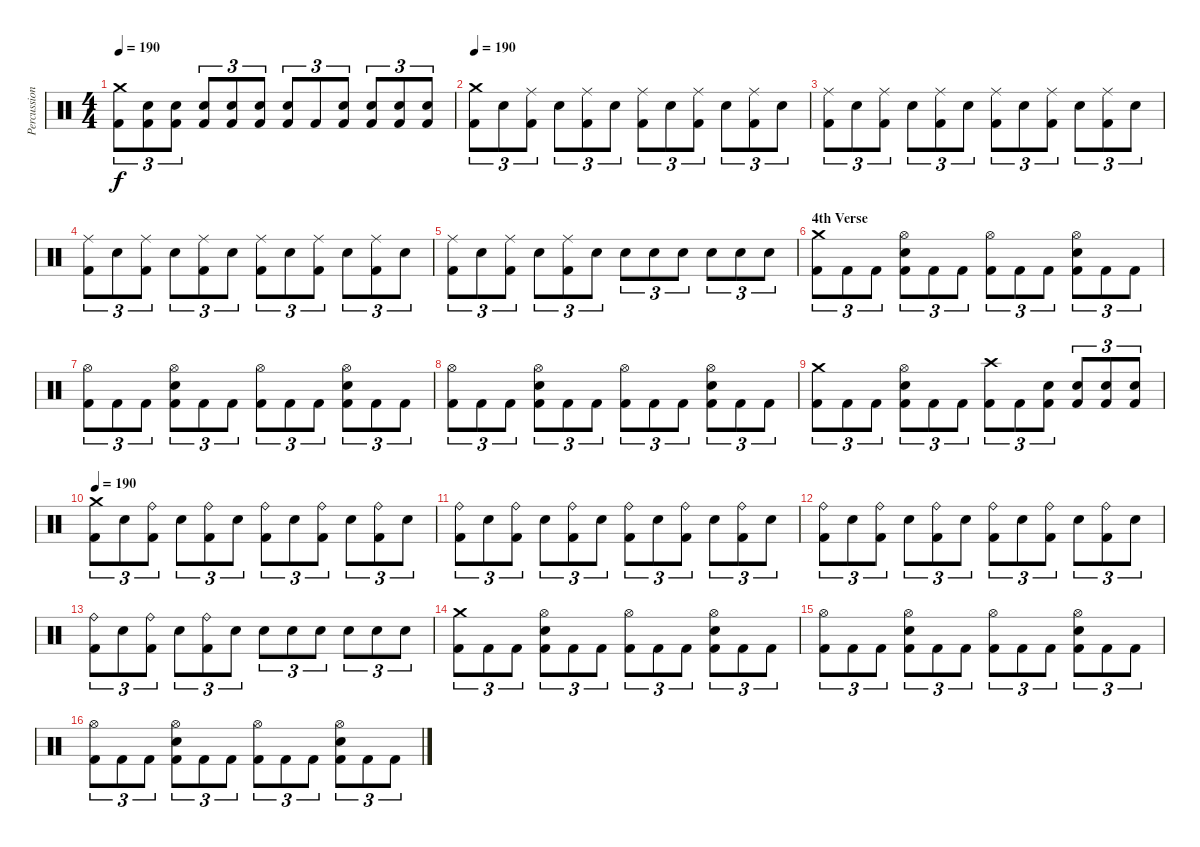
\track ("Percussion" "Percussion") {instrument percussion}
\staff {score}
\articulation defaults
\ts (4 4)
\tempo 190
\clef neutral
\ks c
("Kick (hit) 2" "Crash medium (hit)").8{tu (3 2) dy f} ("Kick (hit) 2" "Electric Snare (hit)").8{tu (3 2)} ("Kick (hit) 2" "Electric Snare (hit)").8{tu (3 2)} ("Kick (hit) 2" "Electric Snare (hit)").8{tu (3 2)} ("Kick (hit) 2" "Electric Snare (hit)").8{tu (3 2)} ("Kick (hit) 2" "Electric Snare (hit)").8{tu (3 2)} ("Kick (hit) 2" "Electric Snare (hit)").8{tu (3 2)} "Kick (hit) 2".8{tu (3 2)} ("Kick (hit) 2" "Electric Snare (hit)").8{tu (3 2)} ("Kick (hit) 2" "Electric Snare (hit)").8{tu (3 2)} ("Kick (hit) 2" "Electric Snare (hit)").8{tu (3 2)} ("Kick (hit) 2" "Electric Snare (hit)").8{tu (3 2)} |
\tempo 190
("Kick (hit) 2" "Crash medium (hit)").8{tu (3 2)} "Electric Snare (hit)".8{tu (3 2)} ("Kick (hit) 2" "Ride (middle)").8{tu (3 2)} "Electric Snare (hit)".8{tu (3 2)} ("Kick (hit) 2" "Ride (middle)").8{tu (3 2)} "Electric Snare (hit)".8{tu (3 2)} ("Kick (hit) 2" "Ride (middle)").8{tu (3 2)} "Electric Snare (hit)".8{tu (3 2)} ("Kick (hit) 2" "Ride (middle)").8{tu (3 2)} "Electric Snare (hit)".8{tu (3 2)} ("Kick (hit) 2" "Ride (middle)").8{tu (3 2)} "Electric Snare (hit)".8{tu (3 2)} |
("Kick (hit) 2" "Ride (middle)").8{tu (3 2)} "Electric Snare (hit)".8{tu (3 2)} ("Kick (hit) 2" "Ride (middle)").8{tu (3 2)} "Electric Snare (hit)".8{tu (3 2)} ("Kick (hit) 2" "Ride (middle)").8{tu (3 2)} "Electric Snare (hit)".8{tu (3 2)} ("Kick (hit) 2" "Ride (middle)").8{tu (3 2)} "Electric Snare (hit)".8{tu (3 2)} ("Kick (hit) 2" "Ride (middle)").8{tu (3 2)} "Electric Snare (hit)".8{tu (3 2)} ("Kick (hit) 2" "Ride (middle)").8{tu (3 2)} "Electric Snare (hit)".8{tu (3 2)} |
("Kick (hit) 2" "Ride (middle)").8{tu (3 2)} "Electric Snare (hit)".8{tu (3 2)} ("Kick (hit) 2" "Ride (middle)").8{tu (3 2)} "Electric Snare (hit)".8{tu (3 2)} ("Kick (hit) 2" "Ride (middle)").8{tu (3 2)} "Electric Snare (hit)".8{tu (3 2)} ("Kick (hit) 2" "Ride (middle)").8{tu (3 2)} "Electric Snare (hit)".8{tu (3 2)} ("Kick (hit) 2" "Ride (middle)").8{tu (3 2)} "Electric Snare (hit)".8{tu (3 2)} ("Kick (hit) 2" "Ride (middle)").8{tu (3 2)} "Electric Snare (hit)".8{tu (3 2)} |
("Kick (hit) 2" "Ride (middle)").8{tu (3 2)} "Electric Snare (hit)".8{tu (3 2)} ("Kick (hit) 2" "Ride (middle)").8{tu (3 2)} "Electric Snare (hit)".8{tu (3 2)} ("Kick (hit) 2" "Ride (middle)").8{tu (3 2)} "Electric Snare (hit)".8{tu (3 2)} "Electric Snare (hit)".8{tu (3 2)} "Electric Snare (hit)".8{tu (3 2)} "Electric Snare (hit)".8{tu (3 2)} "Electric Snare (hit)".8{tu (3 2)} "Electric Snare (hit)".8{tu (3 2)} "Electric Snare (hit)".8{tu (3 2)} |
\section ("" "4th Verse")
("Kick (hit) 2" "Crash medium (hit)").8{tu (3 2)} "Kick (hit) 2".8{tu (3 2)} "Kick (hit) 2".8{tu (3 2)} ("Kick (hit) 2" "Electric Snare (hit)" "Hi-Hat (open)").8{tu (3 2)} "Kick (hit) 2".8{tu (3 2)} "Kick (hit) 2".8{tu (3 2)} ("Kick (hit) 2" "Hi-Hat (open)").8{tu (3 2)} "Kick (hit) 2".8{tu (3 2)} "Kick (hit) 2".8{tu (3 2)} ("Kick (hit) 2" "Electric Snare (hit)" "Hi-Hat (open)").8{tu (3 2)} "Kick (hit) 2".8{tu (3 2)} "Kick (hit) 2".8{tu (3 2)} |
("Kick (hit) 2" "Hi-Hat (open)").8{tu (3 2)} "Kick (hit) 2".8{tu (3 2)} "Kick (hit) 2".8{tu (3 2)} ("Kick (hit) 2" "Electric Snare (hit)" "Hi-Hat (open)").8{tu (3 2)} "Kick (hit) 2".8{tu (3 2)} "Kick (hit) 2".8{tu (3 2)} ("Kick (hit) 2" "Hi-Hat (open)").8{tu (3 2)} "Kick (hit) 2".8{tu (3 2)} "Kick (hit) 2".8{tu (3 2)} ("Kick (hit) 2" "Electric Snare (hit)" "Hi-Hat (open)").8{tu (3 2)} "Kick (hit) 2".8{tu (3 2)} "Kick (hit) 2".8{tu (3 2)} |
("Kick (hit) 2" "Hi-Hat (open)").8{tu (3 2)} "Kick (hit) 2".8{tu (3 2)} "Kick (hit) 2".8{tu (3 2)} ("Kick (hit) 2" "Electric Snare (hit)" "Hi-Hat (open)").8{tu (3 2)} "Kick (hit) 2".8{tu (3 2)} "Kick (hit) 2".8{tu (3 2)} ("Kick (hit) 2" "Hi-Hat (open)").8{tu (3 2)} "Kick (hit) 2".8{tu (3 2)} "Kick (hit) 2".8{tu (3 2)} ("Kick (hit) 2" "Electric Snare (hit)" "Hi-Hat (open)").8{tu (3 2)} "Kick (hit) 2".8{tu (3 2)} "Kick (hit) 2".8{tu (3 2)} |
("Kick (hit) 2" "Crash medium (hit)").8{tu (3 2)} "Kick (hit) 2".8{tu (3 2)} "Kick (hit) 2".8{tu (3 2)} ("Kick (hit) 2" "Electric Snare (hit)" "Hi-Hat (open)").8{tu (3 2)} "Kick (hit) 2".8{tu (3 2)} "Kick (hit) 2".8{tu (3 2)} ("Kick (hit) 2" "Crash high (hit)").8{tu (3 2)} "Kick (hit) 2".8{tu (3 2)} ("Kick (hit) 2" "Electric Snare (hit)").8{tu (3 2)} ("Kick (hit) 2" "Electric Snare (hit)").8{tu (3 2)} ("Kick (hit) 2" "Electric Snare (hit)").8{tu (3 2)} ("Kick (hit) 2" "Electric Snare (hit)").8{tu (3 2)} |
\tempo 190
("Kick (hit) 2" "Crash medium (hit)").8{tu (3 2)} "Electric Snare (hit)".8{tu (3 2)} ("Kick (hit) 2" "Ride (bell)").8{tu (3 2)} "Electric Snare (hit)".8{tu (3 2)} ("Kick (hit) 2" "Ride (bell)").8{tu (3 2)} "Electric Snare (hit)".8{tu (3 2)} ("Kick (hit) 2" "Ride (bell)").8{tu (3 2)} "Electric Snare (hit)".8{tu (3 2)} ("Kick (hit) 2" "Ride (bell)").8{tu (3 2)} "Electric Snare (hit)".8{tu (3 2)} ("Kick (hit) 2" "Ride (bell)").8{tu (3 2)} "Electric Snare (hit)".8{tu (3 2)} |
("Kick (hit) 2" "Ride (bell)").8{tu (3 2)} "Electric Snare (hit)".8{tu (3 2)} ("Kick (hit) 2" "Ride (bell)").8{tu (3 2)} "Electric Snare (hit)".8{tu (3 2)} ("Kick (hit) 2" "Ride (bell)").8{tu (3 2)} "Electric Snare (hit)".8{tu (3 2)} ("Kick (hit) 2" "Ride (bell)").8{tu (3 2)} "Electric Snare (hit)".8{tu (3 2)} ("Kick (hit) 2" "Ride (bell)").8{tu (3 2)} "Electric Snare (hit)".8{tu (3 2)} ("Kick (hit) 2" "Ride (bell)").8{tu (3 2)} "Electric Snare (hit)".8{tu (3 2)} |
("Kick (hit) 2" "Ride (bell)").8{tu (3 2)} "Electric Snare (hit)".8{tu (3 2)} ("Kick (hit) 2" "Ride (bell)").8{tu (3 2)} "Electric Snare (hit)".8{tu (3 2)} ("Kick (hit) 2" "Ride (bell)").8{tu (3 2)} "Electric Snare (hit)".8{tu (3 2)} ("Kick (hit) 2" "Ride (bell)").8{tu (3 2)} "Electric Snare (hit)".8{tu (3 2)} ("Kick (hit) 2" "Ride (bell)").8{tu (3 2)} "Electric Snare (hit)".8{tu (3 2)} ("Kick (hit) 2" "Ride (bell)").8{tu (3 2)} "Electric Snare (hit)".8{tu (3 2)} |
("Kick (hit) 2" "Ride (bell)").8{tu (3 2)} "Electric Snare (hit)".8{tu (3 2)} ("Kick (hit) 2" "Ride (bell)").8{tu (3 2)} "Electric Snare (hit)".8{tu (3 2)} ("Kick (hit) 2" "Ride (bell)").8{tu (3 2)} "Electric Snare (hit)".8{tu (3 2)} "Electric Snare (hit)".8{tu (3 2)} "Electric Snare (hit)".8{tu (3 2)} "Electric Snare (hit)".8{tu (3 2)} "Electric Snare (hit)".8{tu (3 2)} "Electric Snare (hit)".8{tu (3 2)} "Electric Snare (hit)".8{tu (3 2)} |
("Kick (hit) 2" "Crash medium (hit)").8{tu (3 2)} "Kick (hit) 2".8{tu (3 2)} "Kick (hit) 2".8{tu (3 2)} ("Kick (hit) 2" "Electric Snare (hit)" "Hi-Hat (open)").8{tu (3 2)} "Kick (hit) 2".8{tu (3 2)} "Kick (hit) 2".8{tu (3 2)} ("Kick (hit) 2" "Hi-Hat (open)").8{tu (3 2)} "Kick (hit) 2".8{tu (3 2)} "Kick (hit) 2".8{tu (3 2)} ("Kick (hit) 2" "Electric Snare (hit)" "Hi-Hat (open)").8{tu (3 2)} "Kick (hit) 2".8{tu (3 2)} "Kick (hit) 2".8{tu (3 2)} |
("Kick (hit) 2" "Hi-Hat (open)").8{tu (3 2)} "Kick (hit) 2".8{tu (3 2)} "Kick (hit) 2".8{tu (3 2)} ("Kick (hit) 2" "Electric Snare (hit)" "Hi-Hat (open)").8{tu (3 2)} "Kick (hit) 2".8{tu (3 2)} "Kick (hit) 2".8{tu (3 2)} ("Kick (hit) 2" "Hi-Hat (open)").8{tu (3 2)} "Kick (hit) 2".8{tu (3 2)} "Kick (hit) 2".8{tu (3 2)} ("Kick (hit) 2" "Electric Snare (hit)" "Hi-Hat (open)").8{tu (3 2)} "Kick (hit) 2".8{tu (3 2)} "Kick (hit) 2".8{tu (3 2)} |
("Kick (hit) 2" "Hi-Hat (open)").8{tu (3 2)} "Kick (hit) 2".8{tu (3 2)} "Kick (hit) 2".8{tu (3 2)} ("Kick (hit) 2" "Electric Snare (hit)" "Hi-Hat (open)").8{tu (3 2)} "Kick (hit) 2".8{tu (3 2)} "Kick (hit) 2".8{tu (3 2)} ("Kick (hit) 2" "Hi-Hat (open)").8{tu (3 2)} "Kick (hit) 2".8{tu (3 2)} "Kick (hit) 2".8{tu (3 2)} ("Kick (hit) 2" "Electric Snare (hit)" "Hi-Hat (open)").8{tu (3 2)} "Kick (hit) 2".8{tu (3 2)} "Kick (hit) 2".8{tu (3 2)}
